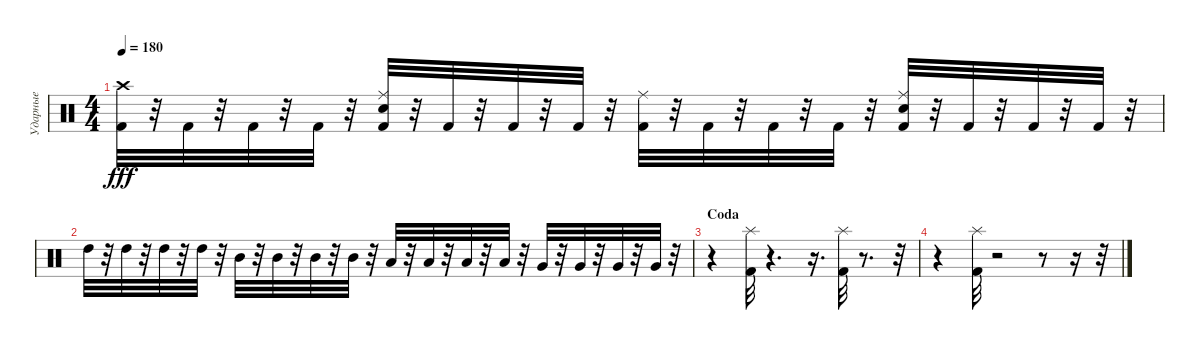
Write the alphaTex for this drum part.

\track ("Ударные" "Ударные") {instrument percussion}
\staff {score}
\articulation defaults
\ts (4 4)
\tempo 180
\clef neutral
\ks c
("Kick (hit) 2" "Crash high (hit)").32{dy fff} r.32 "Kick (hit) 2".32 r.32 "Kick (hit) 2".32 r.32 "Kick (hit) 2".32 r.32 ("Ride (middle)" "Snare (hit) 2" "Kick (hit) 2").32 r.32 "Kick (hit) 2".32 r.32 "Kick (hit) 2".32 r.32 "Kick (hit) 2".32 r.32 ("Kick (hit) 2" "Ride (middle)").32 r.32 "Kick (hit) 2".32 r.32 "Kick (hit) 2".32 r.32 "Kick (hit) 2".32 r.32 ("Ride (middle)" "Kick (hit) 2" "Snare (hit) 2").32 r.32 "Kick (hit) 2".32 r.32 "Kick (hit) 2".32 r.32 "Kick (hit) 2".32 r.32 |
"High Tom (hit)".32 r.32 "High Tom (hit)".32 r.32 "High Tom (hit)".32 r.32 "High Tom (hit)".32 r.32 "Mid Tom (hit)".32 r.32 "Mid Tom (hit)".32 r.32 "Mid Tom (hit)".32 r.32 "Mid Tom (hit)".32 r.32 "Low Tom (hit)".32 r.32 "Low Tom (hit)".32 r.32 "Low Tom (hit)".32 r.32 "Low Tom (hit)".32 r.32 "Very Low Tom (hit)".32 r.32 "Very Low Tom (hit)".32 r.32 "Very Low Tom (hit)".32 r.32 "Very Low Tom (hit)".32 r.32 |
\section ("" "Coda")
r.4 ("Kick (hit) 2" "Splash (hit)").32 r.4{d} r.16{d} ("Splash (hit)" "Kick (hit) 2").32 r.8{d} r.32 |
r.4 ("Kick (hit) 2" "Splash (hit)").32 r.2 r.8 r.16 r.32
